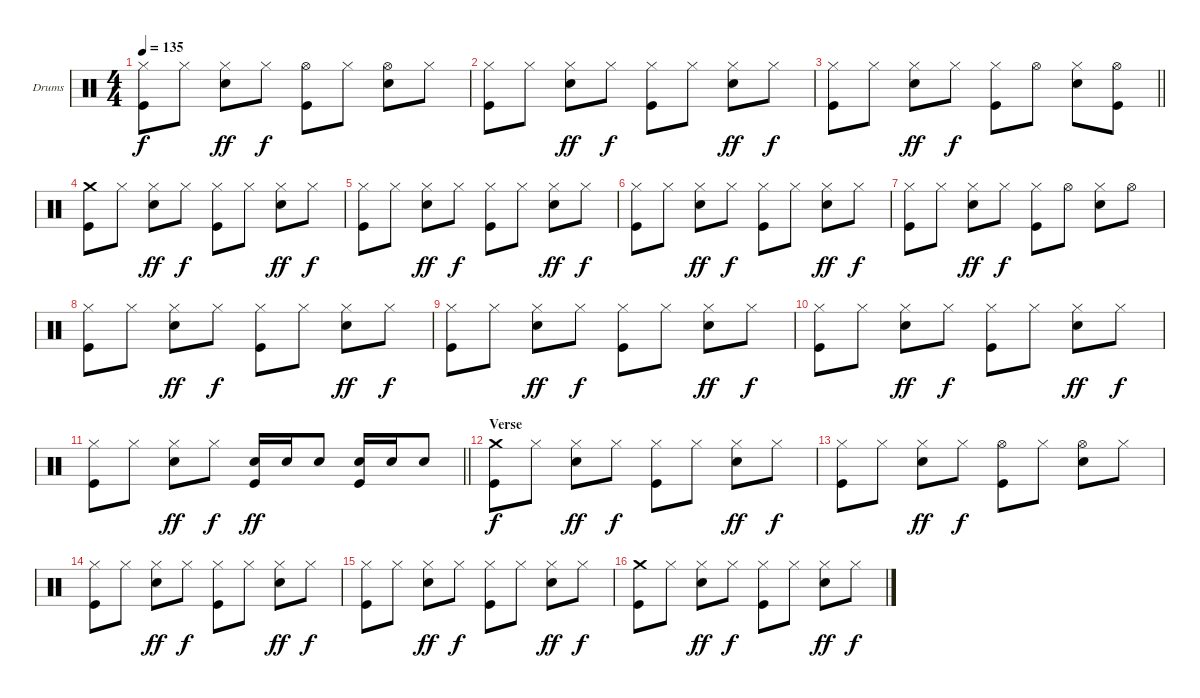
\bracketExtendMode groupsimilarinstruments
\firstSystemTrackNameOrientation horizontal
\otherSystemsTrackNameOrientation horizontal
\track ("Drumkit" "Drums") {instrument percussion}
\staff {score}
\articulation defaults
\ts (4 4)
\tempo 135
\clef neutral
\ks c
("Hi-Hat (closed)" "Kick (hit)").8{dy f} "Hi-Hat (closed)".8 ("Hi-Hat (closed)" "Snare (hit) 2").8{dy ff} "Hi-Hat (closed)".8{dy f} ("Hi-Hat (open)" "Kick (hit)").8 "Hi-Hat (closed)".8 ("Hi-Hat (open)" "Snare (hit) 2").8 "Hi-Hat (closed)".8 |
("Hi-Hat (closed)" "Kick (hit)").8 "Hi-Hat (closed)".8 ("Hi-Hat (closed)" "Snare (hit) 2").8{dy ff} "Hi-Hat (closed)".8{dy f} ("Hi-Hat (closed)" "Kick (hit)").8 "Hi-Hat (closed)".8 ("Hi-Hat (closed)" "Snare (hit) 2").8{dy ff} "Hi-Hat (closed)".8{dy f} |
\barLineRight lightlight
("Hi-Hat (closed)" "Kick (hit)").8 "Hi-Hat (closed)".8 ("Hi-Hat (closed)" "Snare (hit) 2").8{dy ff} "Hi-Hat (closed)".8{dy f} ("Hi-Hat (closed)" "Kick (hit)").8 "Hi-Hat (open)".8 ("Hi-Hat (closed)" "Snare (hit) 2").8 ("Hi-Hat (open)" "Kick (hit)").8 |
("Crash medium (hit)" "Kick (hit)").8 "Hi-Hat (closed)".8 ("Hi-Hat (closed)" "Snare (hit) 2").8{dy ff} "Hi-Hat (closed)".8{dy f} ("Hi-Hat (closed)" "Kick (hit)").8 "Hi-Hat (closed)".8 ("Hi-Hat (closed)" "Snare (hit) 2").8{dy ff} "Hi-Hat (closed)".8{dy f} |
("Hi-Hat (closed)" "Kick (hit)").8 "Hi-Hat (closed)".8 ("Hi-Hat (closed)" "Snare (hit) 2").8{dy ff} "Hi-Hat (closed)".8{dy f} ("Hi-Hat (closed)" "Kick (hit)").8 "Hi-Hat (closed)".8 ("Hi-Hat (closed)" "Snare (hit) 2").8{dy ff} "Hi-Hat (closed)".8{dy f} |
("Hi-Hat (closed)" "Kick (hit)").8 "Hi-Hat (closed)".8 ("Hi-Hat (closed)" "Snare (hit) 2").8{dy ff} "Hi-Hat (closed)".8{dy f} ("Hi-Hat (closed)" "Kick (hit)").8 "Hi-Hat (closed)".8 ("Hi-Hat (closed)" "Snare (hit) 2").8{dy ff} "Hi-Hat (closed)".8{dy f} |
("Hi-Hat (closed)" "Kick (hit)").8 "Hi-Hat (closed)".8 ("Hi-Hat (closed)" "Snare (hit) 2").8{dy ff} "Hi-Hat (closed)".8{dy f} ("Hi-Hat (closed)" "Kick (hit)").8 "Hi-Hat (open)".8 ("Hi-Hat (closed)" "Snare (hit) 2").8 "Hi-Hat (open)".8 |
("Hi-Hat (closed)" "Kick (hit)").8 "Hi-Hat (closed)".8 ("Hi-Hat (closed)" "Snare (hit) 2").8{dy ff} "Hi-Hat (closed)".8{dy f} ("Hi-Hat (closed)" "Kick (hit)").8 "Hi-Hat (closed)".8 ("Hi-Hat (closed)" "Snare (hit) 2").8{dy ff} "Hi-Hat (closed)".8{dy f} |
("Hi-Hat (closed)" "Kick (hit)").8 "Hi-Hat (closed)".8 ("Hi-Hat (closed)" "Snare (hit) 2").8{dy ff} "Hi-Hat (closed)".8{dy f} ("Hi-Hat (closed)" "Kick (hit)").8 "Hi-Hat (closed)".8 ("Hi-Hat (closed)" "Snare (hit) 2").8{dy ff} "Hi-Hat (closed)".8{dy f} |
("Hi-Hat (closed)" "Kick (hit)").8 "Hi-Hat (closed)".8 ("Hi-Hat (closed)" "Snare (hit) 2").8{dy ff} "Hi-Hat (closed)".8{dy f} ("Hi-Hat (closed)" "Kick (hit)").8 "Hi-Hat (closed)".8 ("Hi-Hat (closed)" "Snare (hit) 2").8{dy ff} "Hi-Hat (closed)".8{dy f} |
\barLineRight lightlight
("Hi-Hat (closed)" "Kick (hit)").8 "Hi-Hat (closed)".8 ("Hi-Hat (closed)" "Snare (hit) 2").8{dy ff} "Hi-Hat (closed)".8{dy f} ("Snare (hit) 2" "Kick (hit)").16{dy ff} "Snare (hit) 2".16 "Snare (hit) 2".8 ("Snare (hit) 2" "Kick (hit)").16 "Snare (hit) 2".16 "Snare (hit) 2".8 |
\section ("" "Verse")
("Crash medium (hit)" "Kick (hit)").8{dy f} "Hi-Hat (closed)".8 ("Hi-Hat (closed)" "Snare (hit) 2").8{dy ff} "Hi-Hat (closed)".8{dy f} ("Hi-Hat (closed)" "Kick (hit)").8 "Hi-Hat (closed)".8 ("Hi-Hat (closed)" "Snare (hit) 2").8{dy ff} "Hi-Hat (closed)".8{dy f} |
("Hi-Hat (closed)" "Kick (hit)").8 "Hi-Hat (closed)".8 ("Hi-Hat (closed)" "Snare (hit) 2").8{dy ff} "Hi-Hat (closed)".8{dy f} ("Hi-Hat (open)" "Kick (hit)").8 "Hi-Hat (closed)".8 ("Hi-Hat (open)" "Snare (hit) 2").8 "Hi-Hat (closed)".8 |
("Hi-Hat (closed)" "Kick (hit)").8 "Hi-Hat (closed)".8 ("Hi-Hat (closed)" "Snare (hit) 2").8{dy ff} "Hi-Hat (closed)".8{dy f} ("Hi-Hat (closed)" "Kick (hit)").8 "Hi-Hat (closed)".8 ("Hi-Hat (closed)" "Snare (hit) 2").8{dy ff} "Hi-Hat (closed)".8{dy f} |
("Hi-Hat (closed)" "Kick (hit)").8 "Hi-Hat (closed)".8 ("Hi-Hat (closed)" "Snare (hit) 2").8{dy ff} "Hi-Hat (closed)".8{dy f} ("Hi-Hat (closed)" "Kick (hit)").8 "Hi-Hat (closed)".8 ("Hi-Hat (closed)" "Snare (hit) 2").8{dy ff} "Hi-Hat (closed)".8{dy f} |
("Crash medium (hit)" "Kick (hit)").8 "Hi-Hat (closed)".8 ("Hi-Hat (closed)" "Snare (hit) 2").8{dy ff} "Hi-Hat (closed)".8{dy f} ("Hi-Hat (closed)" "Kick (hit)").8 "Hi-Hat (closed)".8 ("Hi-Hat (closed)" "Snare (hit) 2").8{dy ff} "Hi-Hat (closed)".8{dy f}
